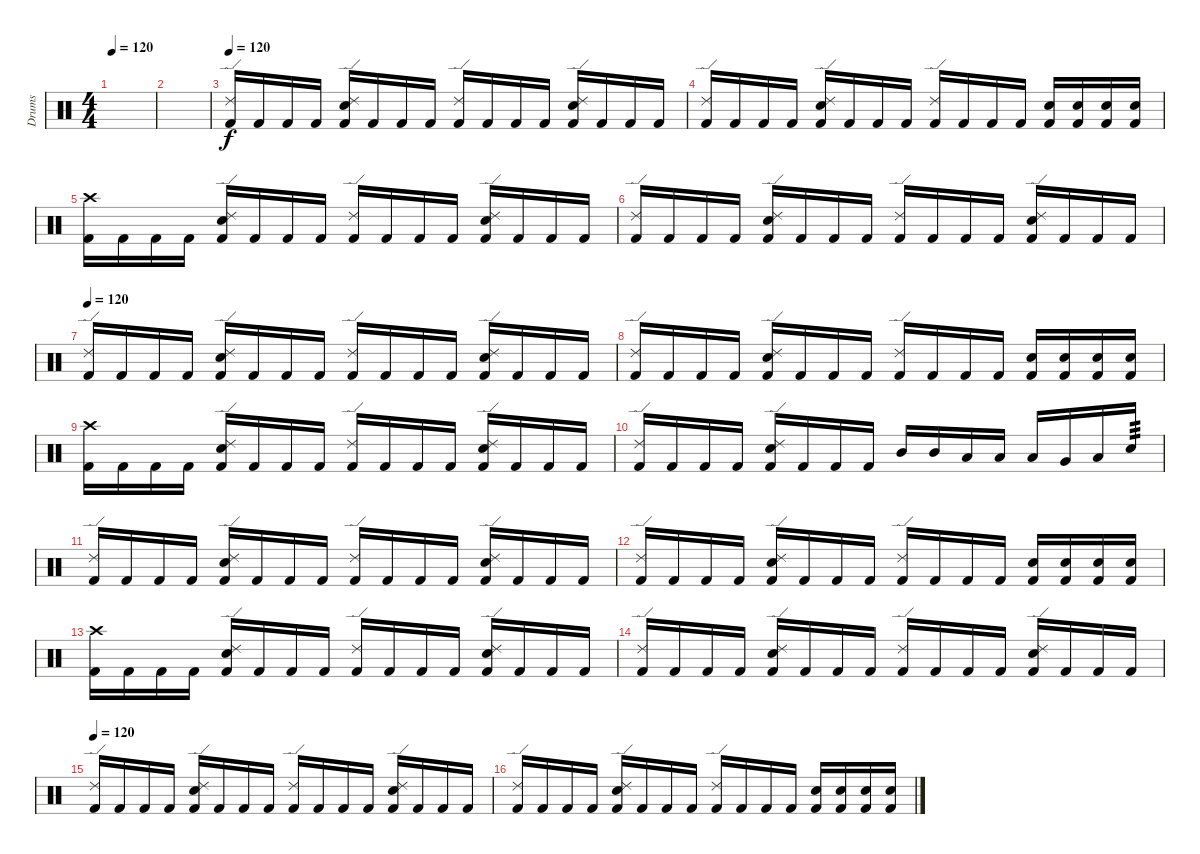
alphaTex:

\track ("Drums" "Drums") {instrument percussion}
\staff {score}
\articulation defaults
\ts (4 4)
\tempo 120
\clef neutral
\ks c
|
|
\tempo 120
("Ride (edge) 2" "Kick (hit) 2").16 "Kick (hit) 2".16 "Kick (hit) 2".16 "Kick (hit) 2".16 ("Ride (edge) 2" "Electric Snare (hit)" "Kick (hit) 2").16 "Kick (hit) 2".16 "Kick (hit) 2".16 "Kick (hit) 2".16 ("Ride (edge) 2" "Kick (hit) 2").16 "Kick (hit) 2".16 "Kick (hit) 2".16 "Kick (hit) 2".16 ("Ride (edge) 2" "Electric Snare (hit)" "Kick (hit) 2").16 "Kick (hit) 2".16 "Kick (hit) 2".16 "Kick (hit) 2".16 |
("Ride (edge) 2" "Kick (hit) 2").16 "Kick (hit) 2".16 "Kick (hit) 2".16 "Kick (hit) 2".16 ("Ride (edge) 2" "Electric Snare (hit)" "Kick (hit) 2").16 "Kick (hit) 2".16 "Kick (hit) 2".16 "Kick (hit) 2".16 ("Ride (edge) 2" "Kick (hit) 2").16 "Kick (hit) 2".16 "Kick (hit) 2".16 "Kick (hit) 2".16 ("Electric Snare (hit)" "Kick (hit) 2").16 ("Electric Snare (hit)" "Kick (hit) 2").16 ("Electric Snare (hit)" "Kick (hit) 2").16 ("Electric Snare (hit)" "Kick (hit) 2").16 |
("Crash high (hit)" "Kick (hit) 2").16 "Kick (hit) 2".16 "Kick (hit) 2".16 "Kick (hit) 2".16 ("Ride (edge) 2" "Electric Snare (hit)" "Kick (hit) 2").16 "Kick (hit) 2".16 "Kick (hit) 2".16 "Kick (hit) 2".16 ("Ride (edge) 2" "Kick (hit) 2").16 "Kick (hit) 2".16 "Kick (hit) 2".16 "Kick (hit) 2".16 ("Ride (edge) 2" "Electric Snare (hit)" "Kick (hit) 2").16 "Kick (hit) 2".16 "Kick (hit) 2".16 "Kick (hit) 2".16 |
("Ride (edge) 2" "Kick (hit) 2").16 "Kick (hit) 2".16 "Kick (hit) 2".16 "Kick (hit) 2".16 ("Ride (edge) 2" "Electric Snare (hit)" "Kick (hit) 2").16 "Kick (hit) 2".16 "Kick (hit) 2".16 "Kick (hit) 2".16 ("Ride (edge) 2" "Kick (hit) 2").16 "Kick (hit) 2".16 "Kick (hit) 2".16 "Kick (hit) 2".16 ("Ride (edge) 2" "Electric Snare (hit)" "Kick (hit) 2").16 "Kick (hit) 2".16 "Kick (hit) 2".16 "Kick (hit) 2".16 |
\tempo 120
("Ride (edge) 2" "Kick (hit) 2").16 "Kick (hit) 2".16 "Kick (hit) 2".16 "Kick (hit) 2".16 ("Ride (edge) 2" "Electric Snare (hit)" "Kick (hit) 2").16 "Kick (hit) 2".16 "Kick (hit) 2".16 "Kick (hit) 2".16 ("Ride (edge) 2" "Kick (hit) 2").16 "Kick (hit) 2".16 "Kick (hit) 2".16 "Kick (hit) 2".16 ("Ride (edge) 2" "Electric Snare (hit)" "Kick (hit) 2").16 "Kick (hit) 2".16 "Kick (hit) 2".16 "Kick (hit) 2".16 |
("Ride (edge) 2" "Kick (hit) 2").16 "Kick (hit) 2".16 "Kick (hit) 2".16 "Kick (hit) 2".16 ("Ride (edge) 2" "Electric Snare (hit)" "Kick (hit) 2").16 "Kick (hit) 2".16 "Kick (hit) 2".16 "Kick (hit) 2".16 ("Ride (edge) 2" "Kick (hit) 2").16 "Kick (hit) 2".16 "Kick (hit) 2".16 "Kick (hit) 2".16 ("Electric Snare (hit)" "Kick (hit) 2").16 ("Electric Snare (hit)" "Kick (hit) 2").16 ("Electric Snare (hit)" "Kick (hit) 2").16 ("Electric Snare (hit)" "Kick (hit) 2").16 |
("Crash high (hit)" "Kick (hit) 2").16 "Kick (hit) 2".16 "Kick (hit) 2".16 "Kick (hit) 2".16 ("Ride (edge) 2" "Electric Snare (hit)" "Kick (hit) 2").16 "Kick (hit) 2".16 "Kick (hit) 2".16 "Kick (hit) 2".16 ("Ride (edge) 2" "Kick (hit) 2").16 "Kick (hit) 2".16 "Kick (hit) 2".16 "Kick (hit) 2".16 ("Ride (edge) 2" "Electric Snare (hit)" "Kick (hit) 2").16 "Kick (hit) 2".16 "Kick (hit) 2".16 "Kick (hit) 2".16 |
("Ride (edge) 2" "Kick (hit) 2").16 "Kick (hit) 2".16 "Kick (hit) 2".16 "Kick (hit) 2".16 ("Ride (edge) 2" "Electric Snare (hit)" "Kick (hit) 2").16 "Kick (hit) 2".16 "Kick (hit) 2".16 "Kick (hit) 2".16 "Mid Tom (hit)".16 "Mid Tom (hit)".16 "Low Tom (hit)".16 "Low Tom (hit)".16 "Low Tom (hit)".16 "Very Low Tom (hit)".16 "Low Floor Tom (hit)".16 "Electric Snare (hit)".16{tp 3} |
("Ride (edge) 2" "Kick (hit) 2").16 "Kick (hit) 2".16 "Kick (hit) 2".16 "Kick (hit) 2".16 ("Ride (edge) 2" "Electric Snare (hit)" "Kick (hit) 2").16 "Kick (hit) 2".16 "Kick (hit) 2".16 "Kick (hit) 2".16 ("Ride (edge) 2" "Kick (hit) 2").16 "Kick (hit) 2".16 "Kick (hit) 2".16 "Kick (hit) 2".16 ("Ride (edge) 2" "Electric Snare (hit)" "Kick (hit) 2").16 "Kick (hit) 2".16 "Kick (hit) 2".16 "Kick (hit) 2".16 |
("Ride (edge) 2" "Kick (hit) 2").16 "Kick (hit) 2".16 "Kick (hit) 2".16 "Kick (hit) 2".16 ("Ride (edge) 2" "Electric Snare (hit)" "Kick (hit) 2").16 "Kick (hit) 2".16 "Kick (hit) 2".16 "Kick (hit) 2".16 ("Ride (edge) 2" "Kick (hit) 2").16 "Kick (hit) 2".16 "Kick (hit) 2".16 "Kick (hit) 2".16 ("Electric Snare (hit)" "Kick (hit) 2").16 ("Electric Snare (hit)" "Kick (hit) 2").16 ("Electric Snare (hit)" "Kick (hit) 2").16 ("Electric Snare (hit)" "Kick (hit) 2").16 |
("Crash high (hit)" "Kick (hit) 2").16 "Kick (hit) 2".16 "Kick (hit) 2".16 "Kick (hit) 2".16 ("Ride (edge) 2" "Electric Snare (hit)" "Kick (hit) 2").16 "Kick (hit) 2".16 "Kick (hit) 2".16 "Kick (hit) 2".16 ("Ride (edge) 2" "Kick (hit) 2").16 "Kick (hit) 2".16 "Kick (hit) 2".16 "Kick (hit) 2".16 ("Ride (edge) 2" "Electric Snare (hit)" "Kick (hit) 2").16 "Kick (hit) 2".16 "Kick (hit) 2".16 "Kick (hit) 2".16 |
("Ride (edge) 2" "Kick (hit) 2").16 "Kick (hit) 2".16 "Kick (hit) 2".16 "Kick (hit) 2".16 ("Ride (edge) 2" "Electric Snare (hit)" "Kick (hit) 2").16 "Kick (hit) 2".16 "Kick (hit) 2".16 "Kick (hit) 2".16 ("Ride (edge) 2" "Kick (hit) 2").16 "Kick (hit) 2".16 "Kick (hit) 2".16 "Kick (hit) 2".16 ("Ride (edge) 2" "Electric Snare (hit)" "Kick (hit) 2").16 "Kick (hit) 2".16 "Kick (hit) 2".16 "Kick (hit) 2".16 |
\tempo 120
("Ride (edge) 2" "Kick (hit) 2").16 "Kick (hit) 2".16 "Kick (hit) 2".16 "Kick (hit) 2".16 ("Ride (edge) 2" "Electric Snare (hit)" "Kick (hit) 2").16 "Kick (hit) 2".16 "Kick (hit) 2".16 "Kick (hit) 2".16 ("Ride (edge) 2" "Kick (hit) 2").16 "Kick (hit) 2".16 "Kick (hit) 2".16 "Kick (hit) 2".16 ("Ride (edge) 2" "Electric Snare (hit)" "Kick (hit) 2").16 "Kick (hit) 2".16 "Kick (hit) 2".16 "Kick (hit) 2".16 |
("Ride (edge) 2" "Kick (hit) 2").16 "Kick (hit) 2".16 "Kick (hit) 2".16 "Kick (hit) 2".16 ("Ride (edge) 2" "Electric Snare (hit)" "Kick (hit) 2").16 "Kick (hit) 2".16 "Kick (hit) 2".16 "Kick (hit) 2".16 ("Ride (edge) 2" "Kick (hit) 2").16 "Kick (hit) 2".16 "Kick (hit) 2".16 "Kick (hit) 2".16 ("Electric Snare (hit)" "Kick (hit) 2").16 ("Electric Snare (hit)" "Kick (hit) 2").16 ("Electric Snare (hit)" "Kick (hit) 2").16 ("Electric Snare (hit)" "Kick (hit) 2").16
